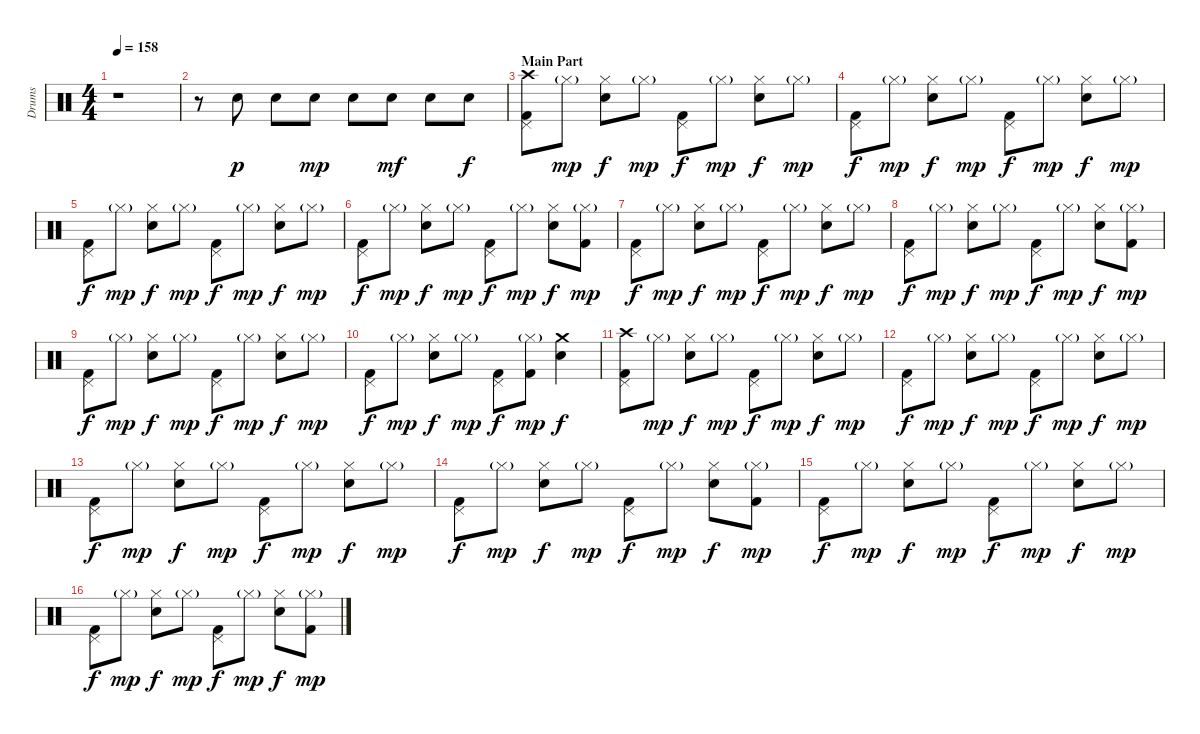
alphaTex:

\track ("Drums" "Drums") {instrument percussion}
\staff {score}
\articulation defaults
\ts (4 4)
\tempo 158
\clef neutral
\ks c
r.1{dy f} |
r.8 "Snare (hit) 2".8{dy p} "Snare (hit) 2".8 "Snare (hit) 2".8{dy mp} "Snare (hit) 2".8 "Snare (hit) 2".8{dy mf} "Snare (hit) 2".8 "Snare (hit) 2".8{dy f} |
\section ("" "Main Part")
("Crash high (hit)" "Pedal Hi-Hat (hit)" "Kick (hit) 2").8 "Hi-Hat (closed)"{g}.8{dy mp} ("Hi-Hat (closed)" "Snare (hit) 2").8{dy f} "Hi-Hat (closed)"{g}.8{dy mp} ("Pedal Hi-Hat (hit)" "Kick (hit) 2").8{dy f} "Hi-Hat (closed)"{g}.8{dy mp} ("Hi-Hat (closed)" "Snare (hit) 2").8{dy f} "Hi-Hat (closed)"{g}.8{dy mp} |
("Pedal Hi-Hat (hit)" "Kick (hit) 2").8{dy f} "Hi-Hat (closed)"{g}.8{dy mp} ("Hi-Hat (closed)" "Snare (hit) 2").8{dy f} "Hi-Hat (closed)"{g}.8{dy mp} ("Pedal Hi-Hat (hit)" "Kick (hit) 2").8{dy f} "Hi-Hat (closed)"{g}.8{dy mp} ("Hi-Hat (closed)" "Snare (hit) 2").8{dy f} "Hi-Hat (closed)"{g}.8{dy mp} |
("Pedal Hi-Hat (hit)" "Kick (hit) 2").8{dy f} "Hi-Hat (closed)"{g}.8{dy mp} ("Hi-Hat (closed)" "Snare (hit) 2").8{dy f} "Hi-Hat (closed)"{g}.8{dy mp} ("Pedal Hi-Hat (hit)" "Kick (hit) 2").8{dy f} "Hi-Hat (closed)"{g}.8{dy mp} ("Hi-Hat (closed)" "Snare (hit) 2").8{dy f} "Hi-Hat (closed)"{g}.8{dy mp} |
("Pedal Hi-Hat (hit)" "Kick (hit) 2").8{dy f} "Hi-Hat (closed)"{g}.8{dy mp} ("Hi-Hat (closed)" "Snare (hit) 2").8{dy f} "Hi-Hat (closed)"{g}.8{dy mp} ("Pedal Hi-Hat (hit)" "Kick (hit) 2").8{dy f} "Hi-Hat (closed)"{g}.8{dy mp} ("Hi-Hat (closed)" "Snare (hit) 2").8{dy f} ("Hi-Hat (closed)"{g} "Kick (hit) 2").8{dy mp} |
("Pedal Hi-Hat (hit)" "Kick (hit) 2").8{dy f} "Hi-Hat (closed)"{g}.8{dy mp} ("Hi-Hat (closed)" "Snare (hit) 2").8{dy f} "Hi-Hat (closed)"{g}.8{dy mp} ("Pedal Hi-Hat (hit)" "Kick (hit) 2").8{dy f} "Hi-Hat (closed)"{g}.8{dy mp} ("Hi-Hat (closed)" "Snare (hit) 2").8{dy f} "Hi-Hat (closed)"{g}.8{dy mp} |
("Pedal Hi-Hat (hit)" "Kick (hit) 2").8{dy f} "Hi-Hat (closed)"{g}.8{dy mp} ("Hi-Hat (closed)" "Snare (hit) 2").8{dy f} "Hi-Hat (closed)"{g}.8{dy mp} ("Pedal Hi-Hat (hit)" "Kick (hit) 2").8{dy f} "Hi-Hat (closed)"{g}.8{dy mp} ("Hi-Hat (closed)" "Snare (hit) 2").8{dy f} ("Hi-Hat (closed)"{g} "Kick (hit) 2").8{dy mp} |
("Pedal Hi-Hat (hit)" "Kick (hit) 2").8{dy f} "Hi-Hat (closed)"{g}.8{dy mp} ("Hi-Hat (closed)" "Snare (hit) 2").8{dy f} "Hi-Hat (closed)"{g}.8{dy mp} ("Pedal Hi-Hat (hit)" "Kick (hit) 2").8{dy f} "Hi-Hat (closed)"{g}.8{dy mp} ("Hi-Hat (closed)" "Snare (hit) 2").8{dy f} "Hi-Hat (closed)"{g}.8{dy mp} |
("Pedal Hi-Hat (hit)" "Kick (hit) 2").8{dy f} "Hi-Hat (closed)"{g}.8{dy mp} ("Hi-Hat (closed)" "Snare (hit) 2").8{dy f} "Hi-Hat (closed)"{g}.8{dy mp} ("Pedal Hi-Hat (hit)" "Kick (hit) 2").8{dy f} ("Hi-Hat (closed)"{g} "Kick (hit) 2").8{dy mp} ("Crash medium (hit)" "Snare (hit) 2").4{dy f} |
("Crash high (hit)" "Pedal Hi-Hat (hit)" "Kick (hit) 2").8 "Hi-Hat (closed)"{g}.8{dy mp} ("Hi-Hat (closed)" "Snare (hit) 2").8{dy f} "Hi-Hat (closed)"{g}.8{dy mp} ("Pedal Hi-Hat (hit)" "Kick (hit) 2").8{dy f} "Hi-Hat (closed)"{g}.8{dy mp} ("Hi-Hat (closed)" "Snare (hit) 2").8{dy f} "Hi-Hat (closed)"{g}.8{dy mp} |
("Pedal Hi-Hat (hit)" "Kick (hit) 2").8{dy f} "Hi-Hat (closed)"{g}.8{dy mp} ("Hi-Hat (closed)" "Snare (hit) 2").8{dy f} "Hi-Hat (closed)"{g}.8{dy mp} ("Pedal Hi-Hat (hit)" "Kick (hit) 2").8{dy f} "Hi-Hat (closed)"{g}.8{dy mp} ("Hi-Hat (closed)" "Snare (hit) 2").8{dy f} "Hi-Hat (closed)"{g}.8{dy mp} |
("Pedal Hi-Hat (hit)" "Kick (hit) 2").8{dy f} "Hi-Hat (closed)"{g}.8{dy mp} ("Hi-Hat (closed)" "Snare (hit) 2").8{dy f} "Hi-Hat (closed)"{g}.8{dy mp} ("Pedal Hi-Hat (hit)" "Kick (hit) 2").8{dy f} "Hi-Hat (closed)"{g}.8{dy mp} ("Hi-Hat (closed)" "Snare (hit) 2").8{dy f} "Hi-Hat (closed)"{g}.8{dy mp} |
("Pedal Hi-Hat (hit)" "Kick (hit) 2").8{dy f} "Hi-Hat (closed)"{g}.8{dy mp} ("Hi-Hat (closed)" "Snare (hit) 2").8{dy f} "Hi-Hat (closed)"{g}.8{dy mp} ("Pedal Hi-Hat (hit)" "Kick (hit) 2").8{dy f} "Hi-Hat (closed)"{g}.8{dy mp} ("Hi-Hat (closed)" "Snare (hit) 2").8{dy f} ("Hi-Hat (closed)"{g} "Kick (hit) 2").8{dy mp} |
("Pedal Hi-Hat (hit)" "Kick (hit) 2").8{dy f} "Hi-Hat (closed)"{g}.8{dy mp} ("Hi-Hat (closed)" "Snare (hit) 2").8{dy f} "Hi-Hat (closed)"{g}.8{dy mp} ("Pedal Hi-Hat (hit)" "Kick (hit) 2").8{dy f} "Hi-Hat (closed)"{g}.8{dy mp} ("Hi-Hat (closed)" "Snare (hit) 2").8{dy f} "Hi-Hat (closed)"{g}.8{dy mp} |
("Pedal Hi-Hat (hit)" "Kick (hit) 2").8{dy f} "Hi-Hat (closed)"{g}.8{dy mp} ("Hi-Hat (closed)" "Snare (hit) 2").8{dy f} "Hi-Hat (closed)"{g}.8{dy mp} ("Pedal Hi-Hat (hit)" "Kick (hit) 2").8{dy f} "Hi-Hat (closed)"{g}.8{dy mp} ("Hi-Hat (closed)" "Snare (hit) 2").8{dy f} ("Hi-Hat (closed)"{g} "Kick (hit) 2").8{dy mp}
